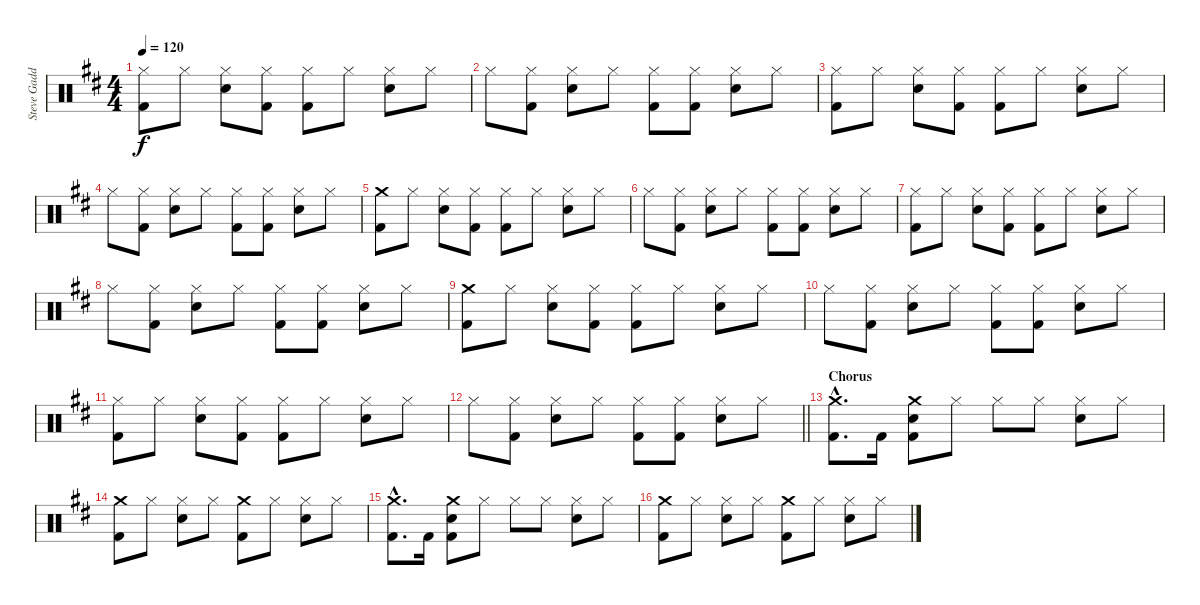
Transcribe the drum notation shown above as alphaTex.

\track ("Steve Gadd Drums" "Steve Gadd") {instrument percussion}
\staff {score}
\articulation defaults
\ts (4 4)
\tempo 120
\clef neutral
\ks d
("Hi-Hat (closed)" "Kick (hit) 2").8{dy f} "Hi-Hat (closed)".8 ("Hi-Hat (closed)" "Snare (hit) 2").8 ("Hi-Hat (closed)" "Kick (hit) 2").8 ("Hi-Hat (closed)" "Kick (hit) 2").8 "Hi-Hat (closed)".8 ("Hi-Hat (closed)" "Snare (hit) 2").8 "Hi-Hat (closed)".8 |
"Hi-Hat (closed)".8 ("Hi-Hat (closed)" "Kick (hit) 2").8 ("Hi-Hat (closed)" "Snare (hit) 2").8 "Hi-Hat (closed)".8 ("Hi-Hat (closed)" "Kick (hit) 2").8 ("Hi-Hat (closed)" "Kick (hit) 2").8 ("Hi-Hat (closed)" "Snare (hit) 2").8 "Hi-Hat (closed)".8 |
("Hi-Hat (closed)" "Kick (hit) 2").8 "Hi-Hat (closed)".8 ("Hi-Hat (closed)" "Snare (hit) 2").8 ("Hi-Hat (closed)" "Kick (hit) 2").8 ("Hi-Hat (closed)" "Kick (hit) 2").8 "Hi-Hat (closed)".8 ("Hi-Hat (closed)" "Snare (hit) 2").8 "Hi-Hat (closed)".8 |
"Hi-Hat (closed)".8 ("Hi-Hat (closed)" "Kick (hit) 2").8 ("Hi-Hat (closed)" "Snare (hit) 2").8 "Hi-Hat (closed)".8 ("Hi-Hat (closed)" "Kick (hit) 2").8 ("Hi-Hat (closed)" "Kick (hit) 2").8 ("Hi-Hat (closed)" "Snare (hit) 2").8 "Hi-Hat (closed)".8 |
("Crash medium (hit)" "Kick (hit) 2").8 "Hi-Hat (closed)".8 ("Hi-Hat (closed)" "Snare (hit) 2").8 ("Hi-Hat (closed)" "Kick (hit) 2").8 ("Hi-Hat (closed)" "Kick (hit) 2").8 "Hi-Hat (closed)".8 ("Hi-Hat (closed)" "Snare (hit) 2").8 "Hi-Hat (closed)".8 |
"Hi-Hat (closed)".8 ("Hi-Hat (closed)" "Kick (hit) 2").8 ("Hi-Hat (closed)" "Snare (hit) 2").8 "Hi-Hat (closed)".8 ("Hi-Hat (closed)" "Kick (hit) 2").8 ("Hi-Hat (closed)" "Kick (hit) 2").8 ("Hi-Hat (closed)" "Snare (hit) 2").8 "Hi-Hat (closed)".8 |
("Hi-Hat (closed)" "Kick (hit) 2").8 "Hi-Hat (closed)".8 ("Hi-Hat (closed)" "Snare (hit) 2").8 ("Hi-Hat (closed)" "Kick (hit) 2").8 ("Hi-Hat (closed)" "Kick (hit) 2").8 "Hi-Hat (closed)".8 ("Hi-Hat (closed)" "Snare (hit) 2").8 "Hi-Hat (closed)".8 |
"Hi-Hat (closed)".8 ("Hi-Hat (closed)" "Kick (hit) 2").8 ("Hi-Hat (closed)" "Snare (hit) 2").8 "Hi-Hat (closed)".8 ("Hi-Hat (closed)" "Kick (hit) 2").8 ("Hi-Hat (closed)" "Kick (hit) 2").8 ("Hi-Hat (closed)" "Snare (hit) 2").8 "Hi-Hat (closed)".8 |
("Crash medium (hit)" "Kick (hit) 2").8 "Hi-Hat (closed)".8 ("Hi-Hat (closed)" "Snare (hit) 2").8 ("Hi-Hat (closed)" "Kick (hit) 2").8 ("Hi-Hat (closed)" "Kick (hit) 2").8 "Hi-Hat (closed)".8 ("Hi-Hat (closed)" "Snare (hit) 2").8 "Hi-Hat (closed)".8 |
"Hi-Hat (closed)".8 ("Hi-Hat (closed)" "Kick (hit) 2").8 ("Hi-Hat (closed)" "Snare (hit) 2").8 "Hi-Hat (closed)".8 ("Hi-Hat (closed)" "Kick (hit) 2").8 ("Hi-Hat (closed)" "Kick (hit) 2").8 ("Hi-Hat (closed)" "Snare (hit) 2").8 "Hi-Hat (closed)".8 |
("Hi-Hat (closed)" "Kick (hit) 2").8 "Hi-Hat (closed)".8 ("Hi-Hat (closed)" "Snare (hit) 2").8 ("Hi-Hat (closed)" "Kick (hit) 2").8 ("Hi-Hat (closed)" "Kick (hit) 2").8 "Hi-Hat (closed)".8 ("Hi-Hat (closed)" "Snare (hit) 2").8 "Hi-Hat (closed)".8 |
\barLineRight lightlight "Hi-Hat (closed)".8
("Hi-Hat (closed)" "Kick (hit) 2").8 ("Hi-Hat (closed)" "Snare (hit) 2").8 "Hi-Hat (closed)".8 ("Hi-Hat (closed)" "Kick (hit) 2").8 ("Hi-Hat (closed)" "Kick (hit) 2").8 ("Hi-Hat (closed)" "Snare (hit) 2").8 "Hi-Hat (closed)".8 |
\section ("" "Chorus")
("Crash medium (hit)"{hac} "Kick (hit) 2"{hac}).8{d} "Kick (hit) 2".16 ("Crash medium (hit)" "Snare (hit) 2" "Kick (hit) 2").8 "Hi-Hat (closed)".8 "Hi-Hat (closed)".8 "Hi-Hat (closed)".8 ("Hi-Hat (closed)" "Snare (hit) 2").8 "Hi-Hat (closed)".8 |
("Crash medium (hit)" "Kick (hit) 2").8 "Hi-Hat (closed)".8 ("Hi-Hat (closed)" "Snare (hit) 2").8 "Hi-Hat (closed)".8 ("Crash medium (hit)" "Kick (hit) 2").8 "Hi-Hat (closed)".8 ("Hi-Hat (closed)" "Snare (hit) 2").8 "Hi-Hat (closed)".8 |
("Crash medium (hit)"{hac} "Kick (hit) 2"{hac}).8{d} "Kick (hit) 2".16 ("Crash medium (hit)" "Snare (hit) 2" "Kick (hit) 2").8 "Hi-Hat (closed)".8 "Hi-Hat (closed)".8 "Hi-Hat (closed)".8 ("Hi-Hat (closed)" "Snare (hit) 2").8 "Hi-Hat (closed)".8 |
("Crash medium (hit)" "Kick (hit) 2").8 "Hi-Hat (closed)".8 ("Hi-Hat (closed)" "Snare (hit) 2").8 "Hi-Hat (closed)".8 ("Crash medium (hit)" "Kick (hit) 2").8 "Hi-Hat (closed)".8 ("Hi-Hat (closed)" "Snare (hit) 2").8 "Hi-Hat (closed)".8
